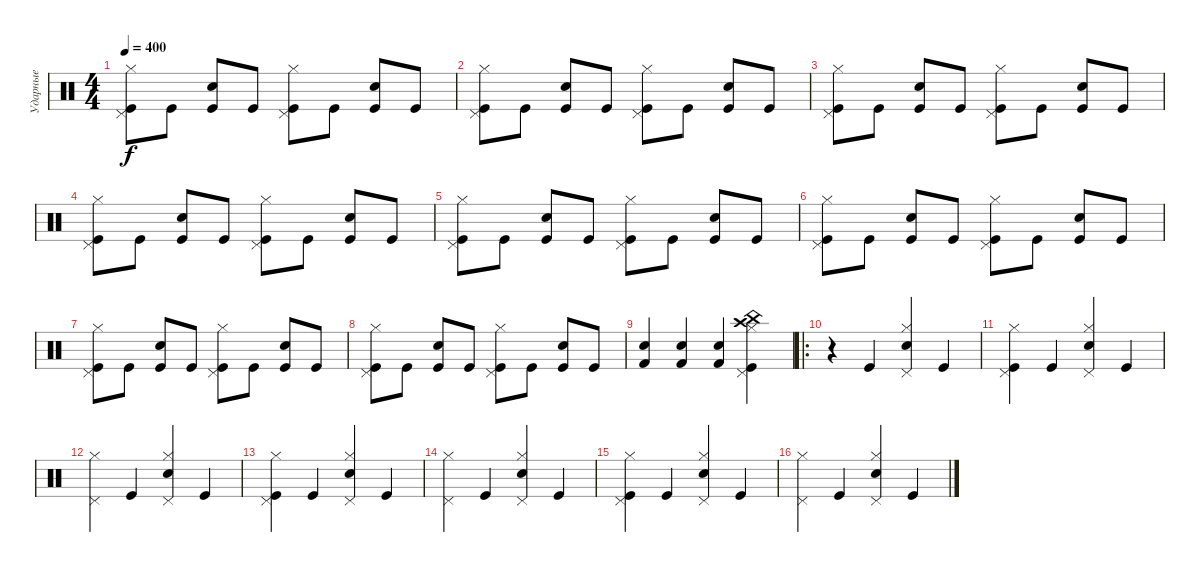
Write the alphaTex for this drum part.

\track ("Ударные" "Ударные") {instrument percussion}
\staff {score}
\articulation defaults
\ts (4 4)
\tempo 400
\clef neutral
\ks c
("Kick (hit)" "Pedal Hi-Hat (hit)" "Hi-Hat (closed)").8{dy f} "Kick (hit)".8 ("Kick (hit)" "Electric Snare (hit)").8 "Kick (hit)".8 ("Kick (hit)" "Hi-Hat (closed)" "Pedal Hi-Hat (hit)").8 "Kick (hit)".8 ("Kick (hit)" "Electric Snare (hit)").8 "Kick (hit)".8 |
("Kick (hit)" "Pedal Hi-Hat (hit)" "Hi-Hat (closed)").8 "Kick (hit)".8 ("Kick (hit)" "Electric Snare (hit)").8 "Kick (hit)".8 ("Kick (hit)" "Hi-Hat (closed)" "Pedal Hi-Hat (hit)").8 "Kick (hit)".8 ("Kick (hit)" "Electric Snare (hit)").8 "Kick (hit)".8 |
("Kick (hit)" "Pedal Hi-Hat (hit)" "Hi-Hat (closed)").8 "Kick (hit)".8 ("Kick (hit)" "Electric Snare (hit)").8 "Kick (hit)".8 ("Kick (hit)" "Hi-Hat (closed)" "Pedal Hi-Hat (hit)").8 "Kick (hit)".8 ("Kick (hit)" "Electric Snare (hit)").8 "Kick (hit)".8 |
("Kick (hit)" "Pedal Hi-Hat (hit)" "Hi-Hat (closed)").8 "Kick (hit)".8 ("Kick (hit)" "Electric Snare (hit)").8 "Kick (hit)".8 ("Kick (hit)" "Hi-Hat (closed)" "Pedal Hi-Hat (hit)").8 "Kick (hit)".8 ("Kick (hit)" "Electric Snare (hit)").8 "Kick (hit)".8 |
("Kick (hit)" "Pedal Hi-Hat (hit)" "Hi-Hat (closed)").8 "Kick (hit)".8 ("Kick (hit)" "Electric Snare (hit)").8 "Kick (hit)".8 ("Kick (hit)" "Hi-Hat (closed)" "Pedal Hi-Hat (hit)").8 "Kick (hit)".8 ("Kick (hit)" "Electric Snare (hit)").8 "Kick (hit)".8 |
("Kick (hit)" "Pedal Hi-Hat (hit)" "Hi-Hat (closed)").8 "Kick (hit)".8 ("Kick (hit)" "Electric Snare (hit)").8 "Kick (hit)".8 ("Kick (hit)" "Hi-Hat (closed)" "Pedal Hi-Hat (hit)").8 "Kick (hit)".8 ("Kick (hit)" "Electric Snare (hit)").8 "Kick (hit)".8 |
("Kick (hit)" "Pedal Hi-Hat (hit)" "Hi-Hat (closed)").8 "Kick (hit)".8 ("Kick (hit)" "Electric Snare (hit)").8 "Kick (hit)".8 ("Kick (hit)" "Hi-Hat (closed)" "Pedal Hi-Hat (hit)").8 "Kick (hit)".8 ("Kick (hit)" "Electric Snare (hit)").8 "Kick (hit)".8 |
("Kick (hit)" "Pedal Hi-Hat (hit)" "Hi-Hat (closed)").8 "Kick (hit)".8 ("Kick (hit)" "Electric Snare (hit)").8 "Kick (hit)".8 ("Kick (hit)" "Hi-Hat (closed)" "Pedal Hi-Hat (hit)").8 "Kick (hit)".8 ("Kick (hit)" "Electric Snare (hit)").8 "Kick (hit)".8 |
("Kick (hit) 2" "Snare (hit) 2").4 ("Kick (hit) 2" "Snare (hit) 2").4 ("Kick (hit) 2" "Snare (hit) 2").4 ("Kick (hit)" "Hi-Hat (closed)" "Pedal Hi-Hat (hit)" "China (hit)" "Crash high (hit)").4 |
\ro
r.4 "Kick (hit)".4 ("Electric Snare (hit)" "Pedal Hi-Hat (hit)" "Hi-Hat (closed)").4 "Kick (hit)".4 |
("Kick (hit)" "Hi-Hat (closed)" "Pedal Hi-Hat (hit)").4 "Kick (hit)".4 ("Electric Snare (hit)" "Hi-Hat (closed)" "Pedal Hi-Hat (hit)").4 "Kick (hit)".4 |
("Hi-Hat (closed)" "Pedal Hi-Hat (hit)").4 "Kick (hit)".4 ("Electric Snare (hit)" "Hi-Hat (closed)" "Pedal Hi-Hat (hit)").4 "Kick (hit)".4 |
("Kick (hit)" "Pedal Hi-Hat (hit)" "Hi-Hat (closed)").4 "Kick (hit)".4 ("Electric Snare (hit)" "Hi-Hat (closed)" "Pedal Hi-Hat (hit)").4 "Kick (hit)".4 |
("Pedal Hi-Hat (hit)" "Hi-Hat (closed)").4 "Kick (hit)".4 ("Electric Snare (hit)" "Pedal Hi-Hat (hit)" "Hi-Hat (closed)").4 "Kick (hit)".4 |
("Kick (hit)" "Hi-Hat (closed)" "Pedal Hi-Hat (hit)").4 "Kick (hit)".4 ("Electric Snare (hit)" "Pedal Hi-Hat (hit)" "Hi-Hat (closed)").4 "Kick (hit)".4 |
("Hi-Hat (closed)" "Pedal Hi-Hat (hit)").4 "Kick (hit)".4 ("Electric Snare (hit)" "Pedal Hi-Hat (hit)" "Hi-Hat (closed)").4 "Kick (hit)".4
